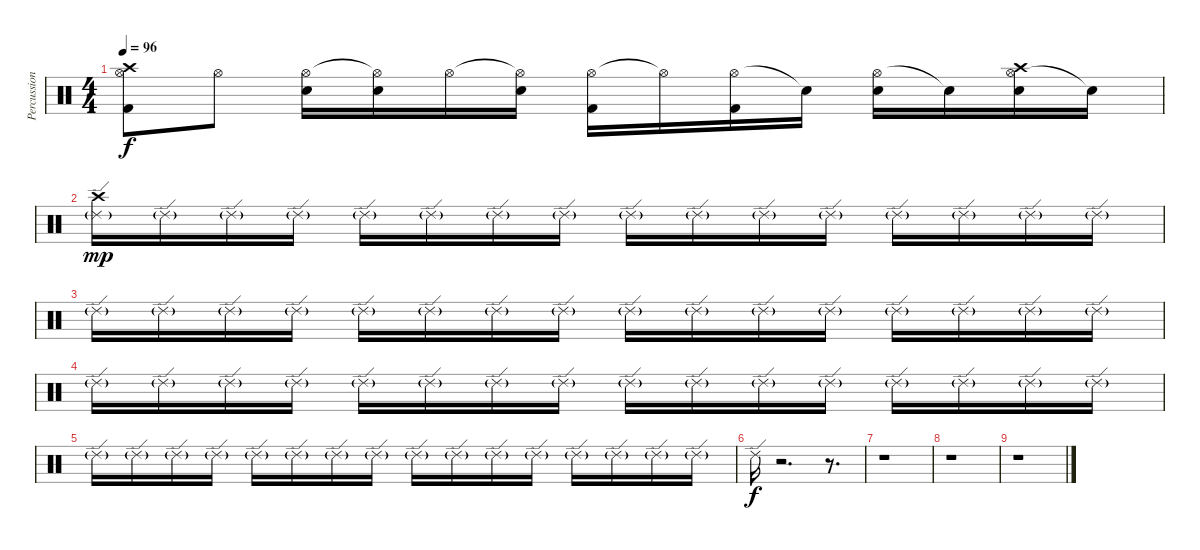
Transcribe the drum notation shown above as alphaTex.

\track ("Percussion" "Percussion") {instrument percussion}
\staff {score}
\articulation defaults
\ts (4 4)
\tempo 96
\clef neutral
\ks c
("Hi-Hat (open)" "Kick (hit) 2" "Crash high (hit)").8{dy f} "Hi-Hat (open)".8 ("Hi-Hat (open)" "Electric Snare (hit)").16 ("Hi-Hat (open)"{t} "Electric Snare (hit)").16 "Hi-Hat (open)".16 ("Hi-Hat (open)"{t} "Electric Snare (hit)").16 ("Hi-Hat (open)" "Kick (hit) 2").16 "Hi-Hat (open)"{t}.16 ("Hi-Hat (open)" "Kick (hit) 2").16 "Snare (hit)"{t}.16 ("Hi-Hat (open)" "Electric Snare (hit)").16 "Snare (hit)"{t}.16 ("Hi-Hat (open)" "Electric Snare (hit)" "Crash high (hit)").16 "Snare (hit)"{t}.16 |
("Ride (edge) 2"{g} "Crash high (hit)").16{dy mp} "Ride (edge) 2"{g}.16 "Ride (edge) 2"{g}.16 "Ride (edge) 2"{g}.16 "Ride (edge) 2"{g}.16 "Ride (edge) 2"{g}.16 "Ride (edge) 2"{g}.16 "Ride (edge) 2"{g}.16 "Ride (edge) 2"{g}.16 "Ride (edge) 2"{g}.16 "Ride (edge) 2"{g}.16 "Ride (edge) 2"{g}.16 "Ride (edge) 2"{g}.16 "Ride (edge) 2"{g}.16 "Ride (edge) 2"{g}.16 "Ride (edge) 2"{g}.16 |
"Ride (edge) 2"{g}.16 "Ride (edge) 2"{g}.16 "Ride (edge) 2"{g}.16 "Ride (edge) 2"{g}.16 "Ride (edge) 2"{g}.16 "Ride (edge) 2"{g}.16 "Ride (edge) 2"{g}.16 "Ride (edge) 2"{g}.16 "Ride (edge) 2"{g}.16 "Ride (edge) 2"{g}.16 "Ride (edge) 2"{g}.16 "Ride (edge) 2"{g}.16 "Ride (edge) 2"{g}.16 "Ride (edge) 2"{g}.16 "Ride (edge) 2"{g}.16 "Ride (edge) 2"{g}.16 |
"Ride (edge) 2"{g}.16 "Ride (edge) 2"{g}.16 "Ride (edge) 2"{g}.16 "Ride (edge) 2"{g}.16 "Ride (edge) 2"{g}.16 "Ride (edge) 2"{g}.16 "Ride (edge) 2"{g}.16 "Ride (edge) 2"{g}.16 "Ride (edge) 2"{g}.16 "Ride (edge) 2"{g}.16 "Ride (edge) 2"{g}.16 "Ride (edge) 2"{g}.16 "Ride (edge) 2"{g}.16 "Ride (edge) 2"{g}.16 "Ride (edge) 2"{g}.16 "Ride (edge) 2"{g}.16 |
"Ride (edge) 2"{g}.16 "Ride (edge) 2"{g}.16 "Ride (edge) 2"{g}.16 "Ride (edge) 2"{g}.16 "Ride (edge) 2"{g}.16 "Ride (edge) 2"{g}.16 "Ride (edge) 2"{g}.16 "Ride (edge) 2"{g}.16 "Ride (edge) 2"{g}.16 "Ride (edge) 2"{g}.16 "Ride (edge) 2"{g}.16 "Ride (edge) 2"{g}.16 "Ride (edge) 2"{g}.16 "Ride (edge) 2"{g}.16 "Ride (edge) 2"{g}.16 "Ride (edge) 2"{g}.16 |
"Ride (edge) 2".16{dy f} r.2{d} r.8{d} |
r.1 |
r.1 |
r.1
